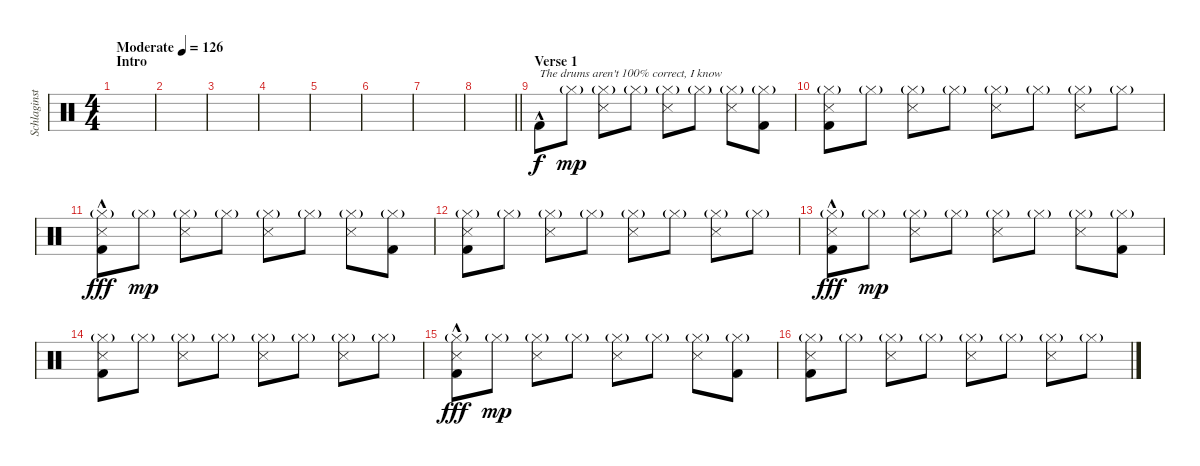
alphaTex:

\track ("Schlaginstrumente - Auswahl" "Schlaginst") {instrument percussion}
\staff {score}
\articulation defaults
\ts (4 4)
\section ("" "Intro")
\tempo (126 "Moderate")
\clef neutral
\ks c
|
|
|
|
|
|
|
\barLineRight lightlight
|
\section ("" "Verse 1")
"Kick (hit) 2"{hac}.8{txt "The drums aren't 100% correct, I know"} "Hi-Hat (closed)"{g}.8{dy mp} ("Hi-Hat (closed)"{g} "Snare (side stick) 3").8 "Hi-Hat (closed)"{g}.8 ("Hi-Hat (closed)"{g} "Snare (side stick) 3").8 "Hi-Hat (closed)"{g}.8 ("Hi-Hat (closed)"{g} "Snare (side stick) 3").8 ("Hi-Hat (closed)"{g} "Kick (hit) 2").8 |
("Hi-Hat (closed)"{g} "Snare (side stick) 3" "Kick (hit) 2").8 "Hi-Hat (closed)"{g}.8 ("Hi-Hat (closed)"{g} "Snare (side stick) 3").8 "Hi-Hat (closed)"{g}.8 ("Hi-Hat (closed)"{g} "Snare (side stick) 3").8 "Hi-Hat (closed)"{g}.8 ("Hi-Hat (closed)"{g} "Snare (side stick) 3").8 "Hi-Hat (closed)"{g}.8 |
("Hi-Hat (closed)"{g} "Snare (side stick) 3" "Kick (hit) 2"{hac}).8{dy fff} "Hi-Hat (closed)"{g}.8{dy mp} ("Hi-Hat (closed)"{g} "Snare (side stick) 3").8 "Hi-Hat (closed)"{g}.8 ("Hi-Hat (closed)"{g} "Snare (side stick) 3").8 "Hi-Hat (closed)"{g}.8 ("Hi-Hat (closed)"{g} "Snare (side stick) 3").8 ("Hi-Hat (closed)"{g} "Kick (hit) 2").8 |
("Hi-Hat (closed)"{g} "Snare (side stick) 3" "Kick (hit) 2").8 "Hi-Hat (closed)"{g}.8 ("Hi-Hat (closed)"{g} "Snare (side stick) 3").8 "Hi-Hat (closed)"{g}.8 ("Hi-Hat (closed)"{g} "Snare (side stick) 3").8 "Hi-Hat (closed)"{g}.8 ("Hi-Hat (closed)"{g} "Snare (side stick) 3").8 "Hi-Hat (closed)"{g}.8 |
("Hi-Hat (closed)"{g} "Snare (side stick) 3" "Kick (hit) 2"{hac}).8{dy fff} "Hi-Hat (closed)"{g}.8{dy mp} ("Hi-Hat (closed)"{g} "Snare (side stick) 3").8 "Hi-Hat (closed)"{g}.8 ("Hi-Hat (closed)"{g} "Snare (side stick) 3").8 "Hi-Hat (closed)"{g}.8 ("Hi-Hat (closed)"{g} "Snare (side stick) 3").8 ("Hi-Hat (closed)"{g} "Kick (hit) 2").8 |
("Hi-Hat (closed)"{g} "Snare (side stick) 3" "Kick (hit) 2").8 "Hi-Hat (closed)"{g}.8 ("Hi-Hat (closed)"{g} "Snare (side stick) 3").8 "Hi-Hat (closed)"{g}.8 ("Hi-Hat (closed)"{g} "Snare (side stick) 3").8 "Hi-Hat (closed)"{g}.8 ("Hi-Hat (closed)"{g} "Snare (side stick) 3").8 "Hi-Hat (closed)"{g}.8 |
("Hi-Hat (closed)"{g} "Snare (side stick) 3" "Kick (hit) 2"{hac}).8{dy fff} "Hi-Hat (closed)"{g}.8{dy mp} ("Hi-Hat (closed)"{g} "Snare (side stick) 3").8 "Hi-Hat (closed)"{g}.8 ("Hi-Hat (closed)"{g} "Snare (side stick) 3").8 "Hi-Hat (closed)"{g}.8 ("Hi-Hat (closed)"{g} "Snare (side stick) 3").8 ("Hi-Hat (closed)"{g} "Kick (hit) 2").8 |
("Hi-Hat (closed)"{g} "Snare (side stick) 3" "Kick (hit) 2").8 "Hi-Hat (closed)"{g}.8 ("Hi-Hat (closed)"{g} "Snare (side stick) 3").8 "Hi-Hat (closed)"{g}.8 ("Hi-Hat (closed)"{g} "Snare (side stick) 3").8 "Hi-Hat (closed)"{g}.8 ("Hi-Hat (closed)"{g} "Snare (side stick) 3").8 "Hi-Hat (closed)"{g}.8
